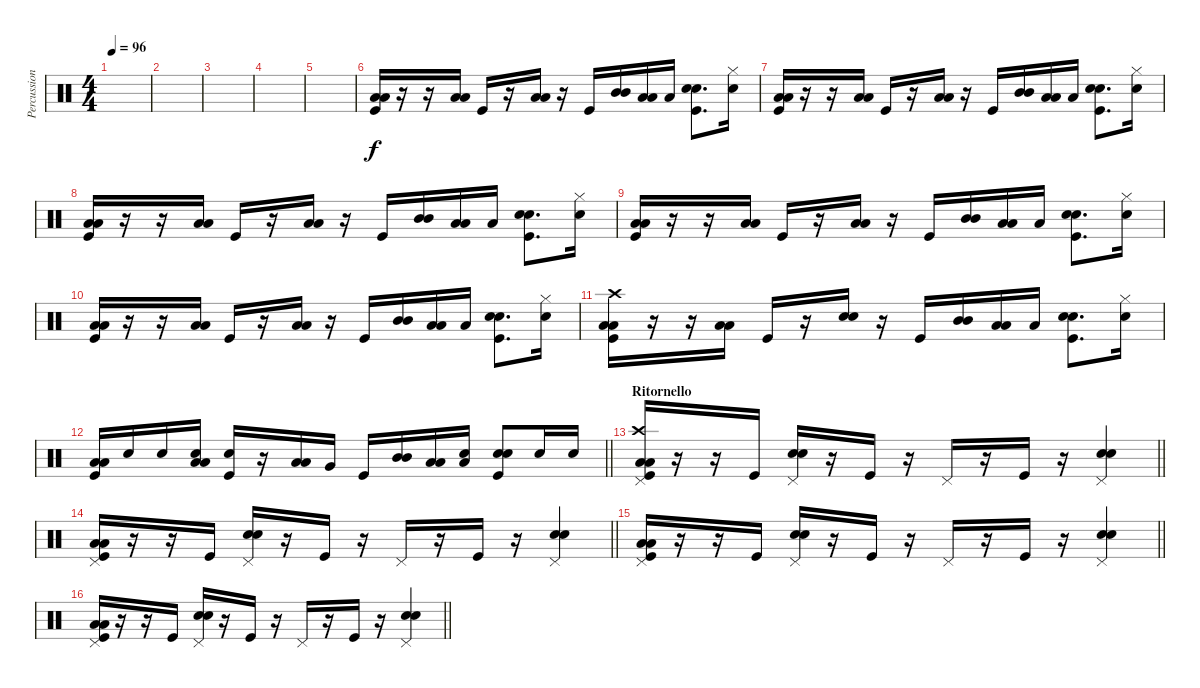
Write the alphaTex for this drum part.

\track ("Percussioni" "Percussion") {instrument percussion}
\staff {score}
\articulation defaults
\ts (4 4)
\tempo 96
\clef neutral
\ks c
|
|
|
|
|
("Low Tom (hit)" "Low Tom (hit)" "Kick (hit)").16 r.16 r.16 ("Low Tom (hit)" "Low Tom (hit)").16 "Kick (hit)".16 r.16 ("Low Tom (hit)" "Low Tom (hit)").16 r.16 "Kick (hit)".16 ("Mid Tom (hit)" "Mid Tom (hit)").16 ("Low Tom (hit)" "Low Tom (hit)").16 "Low Tom (hit)".16 ("Snare (hit) 2" "Snare (hit) 2" "Kick (hit)").8{d} ("Hi-Hat (closed)" "Snare (hit) 2").16 |
("Low Tom (hit)" "Low Tom (hit)" "Kick (hit)").16 r.16 r.16 ("Low Tom (hit)" "Low Tom (hit)").16 "Kick (hit)".16 r.16 ("Low Tom (hit)" "Low Tom (hit)").16 r.16 "Kick (hit)".16 ("Mid Tom (hit)" "Mid Tom (hit)").16 ("Low Tom (hit)" "Low Tom (hit)").16 "Low Tom (hit)".16 ("Snare (hit) 2" "Snare (hit) 2" "Kick (hit)").8{d} ("Hi-Hat (closed)" "Snare (hit) 2").16 |
("Low Tom (hit)" "Low Tom (hit)" "Kick (hit)").16 r.16 r.16 ("Low Tom (hit)" "Low Tom (hit)").16 "Kick (hit)".16 r.16 ("Low Tom (hit)" "Low Tom (hit)").16 r.16 "Kick (hit)".16 ("Mid Tom (hit)" "Mid Tom (hit)").16 ("Low Tom (hit)" "Low Tom (hit)").16 "Low Tom (hit)".16 ("Snare (hit) 2" "Snare (hit) 2" "Kick (hit)").8{d} ("Hi-Hat (closed)" "Snare (hit) 2").16 |
("Low Tom (hit)" "Low Tom (hit)" "Kick (hit)").16 r.16 r.16 ("Low Tom (hit)" "Low Tom (hit)").16 "Kick (hit)".16 r.16 ("Low Tom (hit)" "Low Tom (hit)").16 r.16 "Kick (hit)".16 ("Mid Tom (hit)" "Mid Tom (hit)").16 ("Low Tom (hit)" "Low Tom (hit)").16 "Low Tom (hit)".16 ("Snare (hit) 2" "Snare (hit) 2" "Kick (hit)").8{d} ("Hi-Hat (closed)" "Snare (hit) 2").16 |
("Low Tom (hit)" "Low Tom (hit)" "Kick (hit)").16 r.16 r.16 ("Low Tom (hit)" "Low Tom (hit)").16 "Kick (hit)".16 r.16 ("Low Tom (hit)" "Low Tom (hit)").16 r.16 "Kick (hit)".16 ("Mid Tom (hit)" "Mid Tom (hit)").16 ("Low Tom (hit)" "Low Tom (hit)").16 "Low Tom (hit)".16 ("Snare (hit) 2" "Snare (hit) 2" "Kick (hit)").8{d} ("Hi-Hat (closed)" "Snare (hit) 2").16 |
("Crash high (hit)" "Low Tom (hit)" "Low Tom (hit)" "Kick (hit)").16 r.16 r.16 ("Low Tom (hit)" "Low Tom (hit)").16 "Kick (hit)".16 r.16 ("Snare (hit) 2" "Snare (hit) 2").16 r.16 "Kick (hit)".16 ("Mid Tom (hit)" "Mid Tom (hit)").16 ("Low Tom (hit)" "Low Tom (hit)").16 "Low Tom (hit)".16 ("Snare (hit) 2" "Snare (hit) 2" "Kick (hit)").8{d} ("Hi-Hat (closed)" "Snare (hit) 2").16 |
\barLineRight lightlight
("Low Tom (hit)" "Low Tom (hit)" "Kick (hit)").16 "Snare (hit) 2".16 "Snare (hit) 2".16 ("Low Tom (hit)" "Low Tom (hit)" "Snare (hit) 2").16 ("Snare (hit) 2" "Kick (hit)").16 r.16 ("Low Tom (hit)" "Low Tom (hit)").16 "Very Low Tom (hit)".16 "Kick (hit)".16 ("Mid Tom (hit)" "Mid Tom (hit)").16 ("Low Tom (hit)" "Low Tom (hit)").16 ("Low Tom (hit)" "Snare (hit) 2").16 ("Snare (hit) 2" "Snare (hit) 2" "Kick (hit)").8 "Snare (hit) 2".16 "Snare (hit) 2".16 |
\section ("" "Ritornello")
\barLineRight lightlight
("Crash high (hit)" "Low Tom (hit)" "Low Tom (hit)" "Kick (hit)" "Pedal Hi-Hat (hit)").16 r.16 r.16 "Kick (hit)".16 ("Snare (hit) 2" "Snare (hit) 2" "Pedal Hi-Hat (hit)").16 r.16 "Kick (hit)".16 r.16 "Pedal Hi-Hat (hit)".16 r.16 "Kick (hit)".16 r.16 ("Snare (hit) 2" "Snare (hit) 2" "Pedal Hi-Hat (hit)").4 |
\barLineRight lightlight
("Low Tom (hit)" "Low Tom (hit)" "Kick (hit)" "Pedal Hi-Hat (hit)").16 r.16 r.16 "Kick (hit)".16 ("Snare (hit) 2" "Snare (hit) 2" "Pedal Hi-Hat (hit)").16 r.16 "Kick (hit)".16 r.16 "Pedal Hi-Hat (hit)".16 r.16 "Kick (hit)".16 r.16 ("Snare (hit) 2" "Snare (hit) 2" "Pedal Hi-Hat (hit)").4 |
\barLineRight lightlight
("Low Tom (hit)" "Low Tom (hit)" "Kick (hit)" "Pedal Hi-Hat (hit)").16 r.16 r.16 "Kick (hit)".16 ("Snare (hit) 2" "Snare (hit) 2" "Pedal Hi-Hat (hit)").16 r.16 "Kick (hit)".16 r.16 "Pedal Hi-Hat (hit)".16 r.16 "Kick (hit)".16 r.16 ("Snare (hit) 2" "Snare (hit) 2" "Pedal Hi-Hat (hit)").4 |
\barLineRight lightlight
("Low Tom (hit)" "Low Tom (hit)" "Kick (hit)" "Pedal Hi-Hat (hit)").16 r.16 r.16 "Kick (hit)".16 ("Snare (hit) 2" "Snare (hit) 2" "Pedal Hi-Hat (hit)").16 r.16 "Kick (hit)".16 r.16 "Pedal Hi-Hat (hit)".16 r.16 "Kick (hit)".16 r.16 ("Snare (hit) 2" "Snare (hit) 2" "Pedal Hi-Hat (hit)").4
